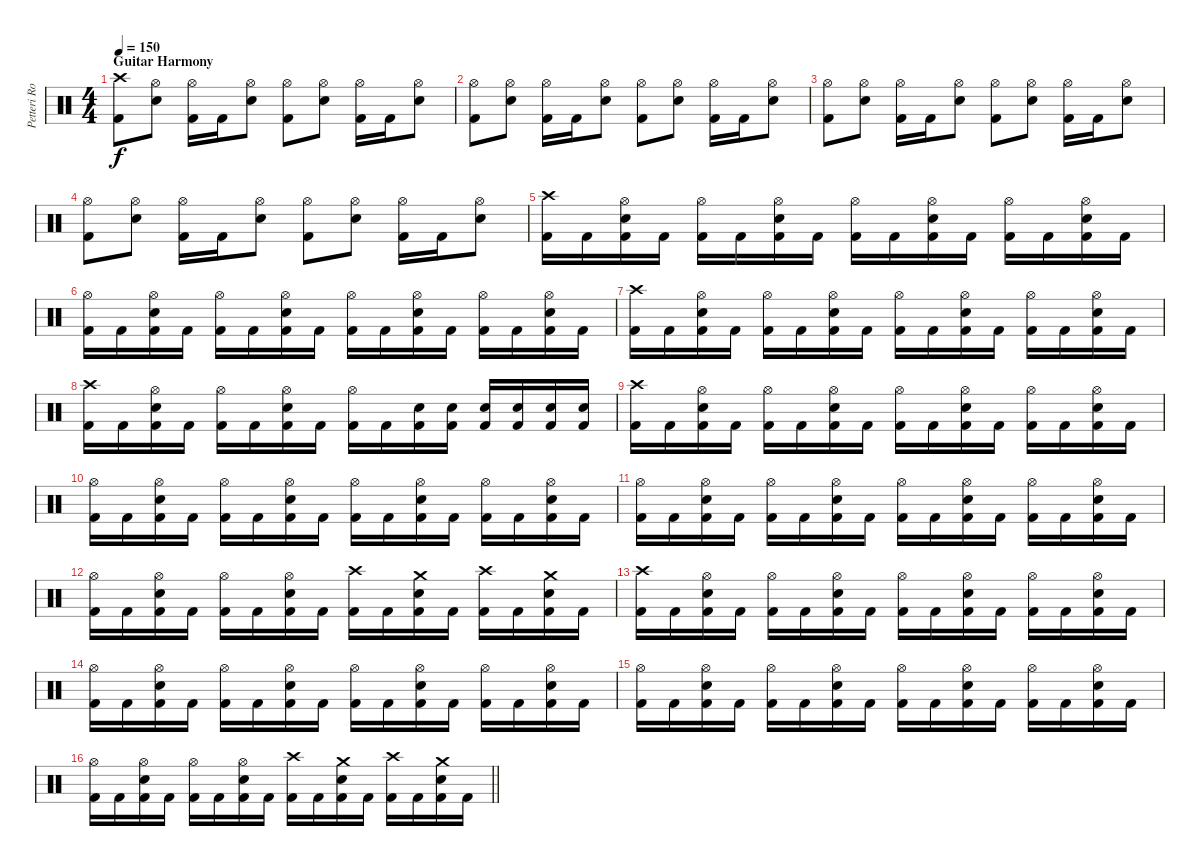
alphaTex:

\track ("Petteri Rosenbom" "Petteri Ro") {instrument percussion}
\staff {score}
\articulation defaults
\ts (4 4)
\section ("" "Guitar Harmony")
\tempo 150
\clef neutral
\ks c
("Crash high (hit)" "Kick (hit) 2").8{dy f} ("Hi-Hat (open)" "Electric Snare (hit)").8 ("Hi-Hat (open)" "Kick (hit) 2").16 "Kick (hit) 2".16 ("Hi-Hat (open)" "Electric Snare (hit)").8 ("Hi-Hat (open)" "Kick (hit) 2").8 ("Hi-Hat (open)" "Electric Snare (hit)").8 ("Hi-Hat (open)" "Kick (hit) 2").16 "Kick (hit) 2".16 ("Hi-Hat (open)" "Electric Snare (hit)").8 |
("Hi-Hat (open)" "Kick (hit) 2").8 ("Hi-Hat (open)" "Electric Snare (hit)").8 ("Hi-Hat (open)" "Kick (hit) 2").16 "Kick (hit) 2".16 ("Hi-Hat (open)" "Electric Snare (hit)").8 ("Hi-Hat (open)" "Kick (hit) 2").8 ("Hi-Hat (open)" "Electric Snare (hit)").8 ("Hi-Hat (open)" "Kick (hit) 2").16 "Kick (hit) 2".16 ("Hi-Hat (open)" "Electric Snare (hit)").8 |
("Hi-Hat (open)" "Kick (hit) 2").8 ("Hi-Hat (open)" "Electric Snare (hit)").8 ("Hi-Hat (open)" "Kick (hit) 2").16 "Kick (hit) 2".16 ("Hi-Hat (open)" "Electric Snare (hit)").8 ("Hi-Hat (open)" "Kick (hit) 2").8 ("Hi-Hat (open)" "Electric Snare (hit)").8 ("Hi-Hat (open)" "Kick (hit) 2").16 "Kick (hit) 2".16 ("Hi-Hat (open)" "Electric Snare (hit)").8 |
("Hi-Hat (open)" "Kick (hit) 2").8 ("Hi-Hat (open)" "Electric Snare (hit)").8 ("Hi-Hat (open)" "Kick (hit) 2").16 "Kick (hit) 2".16 ("Hi-Hat (open)" "Electric Snare (hit)").8 ("Hi-Hat (open)" "Kick (hit) 2").8 ("Hi-Hat (open)" "Electric Snare (hit)").8 ("Hi-Hat (open)" "Kick (hit) 2").16 "Kick (hit) 2".16 ("Hi-Hat (open)" "Electric Snare (hit)").8 |
("Crash high (hit)" "Kick (hit) 2").16 "Kick (hit) 2".16 ("Hi-Hat (open)" "Electric Snare (hit)" "Kick (hit) 2").16 "Kick (hit) 2".16 ("Hi-Hat (open)" "Kick (hit) 2").16 "Kick (hit) 2".16 ("Hi-Hat (open)" "Electric Snare (hit)" "Kick (hit) 2").16 "Kick (hit) 2".16 ("Hi-Hat (open)" "Kick (hit) 2").16 "Kick (hit) 2".16 ("Hi-Hat (open)" "Electric Snare (hit)" "Kick (hit) 2").16 "Kick (hit) 2".16 ("Hi-Hat (open)" "Kick (hit) 2").16 "Kick (hit) 2".16 ("Hi-Hat (open)" "Electric Snare (hit)" "Kick (hit) 2").16 "Kick (hit) 2".16 |
("Hi-Hat (open)" "Kick (hit) 2").16 "Kick (hit) 2".16 ("Hi-Hat (open)" "Electric Snare (hit)" "Kick (hit) 2").16 "Kick (hit) 2".16 ("Hi-Hat (open)" "Kick (hit) 2").16 "Kick (hit) 2".16 ("Hi-Hat (open)" "Electric Snare (hit)" "Kick (hit) 2").16 "Kick (hit) 2".16 ("Hi-Hat (open)" "Kick (hit) 2").16 "Kick (hit) 2".16 ("Hi-Hat (open)" "Electric Snare (hit)" "Kick (hit) 2").16 "Kick (hit) 2".16 ("Hi-Hat (open)" "Kick (hit) 2").16 "Kick (hit) 2".16 ("Hi-Hat (open)" "Electric Snare (hit)" "Kick (hit) 2").16 "Kick (hit) 2".16 |
("Crash high (hit)" "Kick (hit) 2").16 "Kick (hit) 2".16 ("Hi-Hat (open)" "Electric Snare (hit)" "Kick (hit) 2").16 "Kick (hit) 2".16 ("Hi-Hat (open)" "Kick (hit) 2").16 "Kick (hit) 2".16 ("Hi-Hat (open)" "Electric Snare (hit)" "Kick (hit) 2").16 "Kick (hit) 2".16 ("Hi-Hat (open)" "Kick (hit) 2").16 "Kick (hit) 2".16 ("Hi-Hat (open)" "Electric Snare (hit)" "Kick (hit) 2").16 "Kick (hit) 2".16 ("Hi-Hat (open)" "Kick (hit) 2").16 "Kick (hit) 2".16 ("Hi-Hat (open)" "Electric Snare (hit)" "Kick (hit) 2").16 "Kick (hit) 2".16 |
("Crash high (hit)" "Kick (hit) 2").16 "Kick (hit) 2".16 ("Hi-Hat (open)" "Electric Snare (hit)" "Kick (hit) 2").16 "Kick (hit) 2".16 ("Hi-Hat (open)" "Kick (hit) 2").16 "Kick (hit) 2".16 ("Hi-Hat (open)" "Electric Snare (hit)" "Kick (hit) 2").16 "Kick (hit) 2".16 ("Hi-Hat (open)" "Kick (hit) 2").16 "Kick (hit) 2".16 ("Electric Snare (hit)" "Kick (hit) 2").16 ("Electric Snare (hit)" "Kick (hit) 2").16 ("Electric Snare (hit)" "Kick (hit) 2").16 ("Electric Snare (hit)" "Kick (hit) 2").16 ("Electric Snare (hit)" "Kick (hit) 2").16 ("Electric Snare (hit)" "Kick (hit) 2").16 |
("Crash high (hit)" "Kick (hit) 2").16 "Kick (hit) 2".16 ("Hi-Hat (open)" "Electric Snare (hit)" "Kick (hit) 2").16 "Kick (hit) 2".16 ("Hi-Hat (open)" "Kick (hit) 2").16 "Kick (hit) 2".16 ("Hi-Hat (open)" "Electric Snare (hit)" "Kick (hit) 2").16 "Kick (hit) 2".16 ("Hi-Hat (open)" "Kick (hit) 2").16 "Kick (hit) 2".16 ("Hi-Hat (open)" "Electric Snare (hit)" "Kick (hit) 2").16 "Kick (hit) 2".16 ("Hi-Hat (open)" "Kick (hit) 2").16 "Kick (hit) 2".16 ("Hi-Hat (open)" "Electric Snare (hit)" "Kick (hit) 2").16 "Kick (hit) 2".16 |
("Hi-Hat (open)" "Kick (hit) 2").16 "Kick (hit) 2".16 ("Hi-Hat (open)" "Electric Snare (hit)" "Kick (hit) 2").16 "Kick (hit) 2".16 ("Hi-Hat (open)" "Kick (hit) 2").16 "Kick (hit) 2".16 ("Hi-Hat (open)" "Electric Snare (hit)" "Kick (hit) 2").16 "Kick (hit) 2".16 ("Hi-Hat (open)" "Kick (hit) 2").16 "Kick (hit) 2".16 ("Hi-Hat (open)" "Electric Snare (hit)" "Kick (hit) 2").16 "Kick (hit) 2".16 ("Hi-Hat (open)" "Kick (hit) 2").16 "Kick (hit) 2".16 ("Hi-Hat (open)" "Electric Snare (hit)" "Kick (hit) 2").16 "Kick (hit) 2".16 |
("Hi-Hat (open)" "Kick (hit) 2").16 "Kick (hit) 2".16 ("Hi-Hat (open)" "Electric Snare (hit)" "Kick (hit) 2").16 "Kick (hit) 2".16 ("Hi-Hat (open)" "Kick (hit) 2").16 "Kick (hit) 2".16 ("Hi-Hat (open)" "Electric Snare (hit)" "Kick (hit) 2").16 "Kick (hit) 2".16 ("Hi-Hat (open)" "Kick (hit) 2").16 "Kick (hit) 2".16 ("Hi-Hat (open)" "Electric Snare (hit)" "Kick (hit) 2").16 "Kick (hit) 2".16 ("Hi-Hat (open)" "Kick (hit) 2").16 "Kick (hit) 2".16 ("Hi-Hat (open)" "Electric Snare (hit)" "Kick (hit) 2").16 "Kick (hit) 2".16 |
("Hi-Hat (open)" "Kick (hit) 2").16 "Kick (hit) 2".16 ("Hi-Hat (open)" "Electric Snare (hit)" "Kick (hit) 2").16 "Kick (hit) 2".16 ("Hi-Hat (open)" "Kick (hit) 2").16 "Kick (hit) 2".16 ("Hi-Hat (open)" "Electric Snare (hit)" "Kick (hit) 2").16 "Kick (hit) 2".16 ("Crash high (hit)" "Kick (hit) 2").16 "Kick (hit) 2".16 ("Crash medium (hit)" "Electric Snare (hit)" "Kick (hit) 2").16 "Kick (hit) 2".16 ("Crash high (hit)" "Kick (hit) 2").16 "Kick (hit) 2".16 ("Crash medium (hit)" "Electric Snare (hit)" "Kick (hit) 2").16 "Kick (hit) 2".16 |
("Crash high (hit)" "Kick (hit) 2").16 "Kick (hit) 2".16 ("Hi-Hat (open)" "Electric Snare (hit)" "Kick (hit) 2").16 "Kick (hit) 2".16 ("Hi-Hat (open)" "Kick (hit) 2").16 "Kick (hit) 2".16 ("Hi-Hat (open)" "Electric Snare (hit)" "Kick (hit) 2").16 "Kick (hit) 2".16 ("Hi-Hat (open)" "Kick (hit) 2").16 "Kick (hit) 2".16 ("Hi-Hat (open)" "Electric Snare (hit)" "Kick (hit) 2").16 "Kick (hit) 2".16 ("Hi-Hat (open)" "Kick (hit) 2").16 "Kick (hit) 2".16 ("Hi-Hat (open)" "Electric Snare (hit)" "Kick (hit) 2").16 "Kick (hit) 2".16 |
("Hi-Hat (open)" "Kick (hit) 2").16 "Kick (hit) 2".16 ("Hi-Hat (open)" "Electric Snare (hit)" "Kick (hit) 2").16 "Kick (hit) 2".16 ("Hi-Hat (open)" "Kick (hit) 2").16 "Kick (hit) 2".16 ("Hi-Hat (open)" "Electric Snare (hit)" "Kick (hit) 2").16 "Kick (hit) 2".16 ("Hi-Hat (open)" "Kick (hit) 2").16 "Kick (hit) 2".16 ("Hi-Hat (open)" "Electric Snare (hit)" "Kick (hit) 2").16 "Kick (hit) 2".16 ("Hi-Hat (open)" "Kick (hit) 2").16 "Kick (hit) 2".16 ("Hi-Hat (open)" "Electric Snare (hit)" "Kick (hit) 2").16 "Kick (hit) 2".16 |
("Hi-Hat (open)" "Kick (hit) 2").16 "Kick (hit) 2".16 ("Hi-Hat (open)" "Electric Snare (hit)" "Kick (hit) 2").16 "Kick (hit) 2".16 ("Hi-Hat (open)" "Kick (hit) 2").16 "Kick (hit) 2".16 ("Hi-Hat (open)" "Electric Snare (hit)" "Kick (hit) 2").16 "Kick (hit) 2".16 ("Hi-Hat (open)" "Kick (hit) 2").16 "Kick (hit) 2".16 ("Hi-Hat (open)" "Electric Snare (hit)" "Kick (hit) 2").16 "Kick (hit) 2".16 ("Hi-Hat (open)" "Kick (hit) 2").16 "Kick (hit) 2".16 ("Hi-Hat (open)" "Electric Snare (hit)" "Kick (hit) 2").16 "Kick (hit) 2".16 |
\barLineRight lightlight
("Hi-Hat (open)" "Kick (hit) 2").16 "Kick (hit) 2".16 ("Hi-Hat (open)" "Electric Snare (hit)" "Kick (hit) 2").16 "Kick (hit) 2".16 ("Hi-Hat (open)" "Kick (hit) 2").16 "Kick (hit) 2".16 ("Hi-Hat (open)" "Electric Snare (hit)" "Kick (hit) 2").16 "Kick (hit) 2".16 ("Crash high (hit)" "Kick (hit) 2").16 "Kick (hit) 2".16 ("Crash medium (hit)" "Electric Snare (hit)" "Kick (hit) 2").16 "Kick (hit) 2".16 ("Crash high (hit)" "Kick (hit) 2").16 "Kick (hit) 2".16 ("Crash medium (hit)" "Electric Snare (hit)" "Kick (hit) 2").16 "Kick (hit) 2".16
